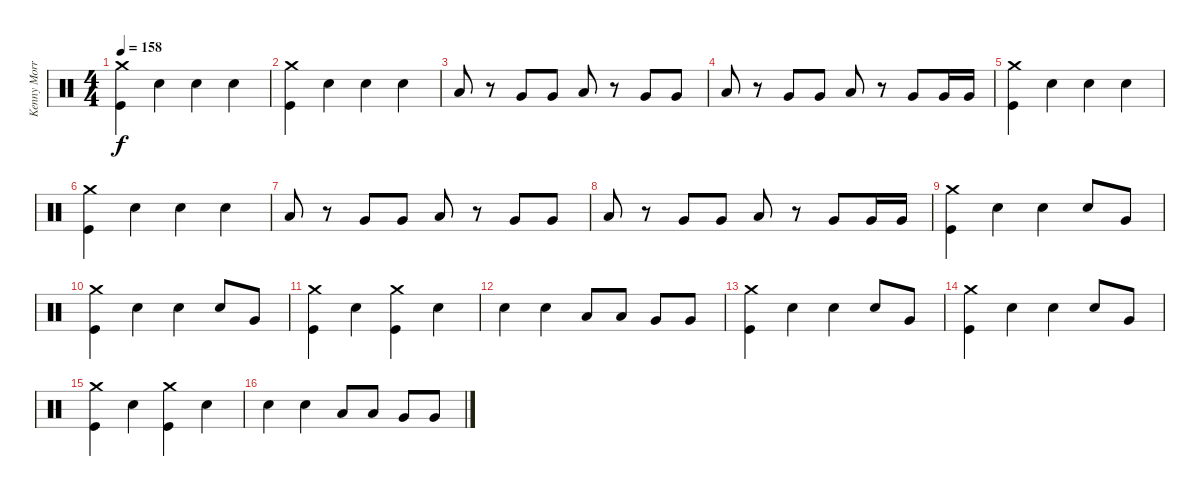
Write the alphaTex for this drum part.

\track ("Kenny Morris" "Kenny Morr") {instrument percussion}
\staff {score}
\articulation defaults
\ts (4 4)
\tempo 158
\clef neutral
\ks c
("Crash medium (hit)" "Kick (hit)").4{dy f} "Snare (hit) 2".4 "Snare (hit) 2".4 "Snare (hit) 2".4 |
("Crash medium (hit)" "Kick (hit)").4 "Snare (hit) 2".4 "Snare (hit) 2".4 "Snare (hit) 2".4 |
"Low Tom (hit)".8 r.8 "Very Low Tom (hit)".8 "Very Low Tom (hit)".8 "Low Tom (hit)".8 r.8 "Very Low Tom (hit)".8 "Very Low Tom (hit)".8 |
"Low Tom (hit)".8 r.8 "Very Low Tom (hit)".8 "Very Low Tom (hit)".8 "Low Tom (hit)".8 r.8 "Very Low Tom (hit)".8 "Very Low Tom (hit)".16 "Very Low Tom (hit)".16 |
("Crash medium (hit)" "Kick (hit)").4 "Snare (hit) 2".4 "Snare (hit) 2".4 "Snare (hit) 2".4 |
("Crash medium (hit)" "Kick (hit)").4 "Snare (hit) 2".4 "Snare (hit) 2".4 "Snare (hit) 2".4 |
"Low Tom (hit)".8 r.8 "Very Low Tom (hit)".8 "Very Low Tom (hit)".8 "Low Tom (hit)".8 r.8 "Very Low Tom (hit)".8 "Very Low Tom (hit)".8 |
"Low Tom (hit)".8 r.8 "Very Low Tom (hit)".8 "Very Low Tom (hit)".8 "Low Tom (hit)".8 r.8 "Very Low Tom (hit)".8 "Very Low Tom (hit)".16 "Very Low Tom (hit)".16 |
("Crash medium (hit)" "Kick (hit)").4 "Snare (hit) 2".4 "Snare (hit) 2".4 "Snare (hit) 2".8 "Very Low Tom (hit)".8 |
("Crash medium (hit)" "Kick (hit)").4 "Snare (hit) 2".4 "Snare (hit) 2".4 "Snare (hit) 2".8 "Very Low Tom (hit)".8 |
("Crash medium (hit)" "Kick (hit)").4 "Snare (hit) 2".4 ("Crash medium (hit)" "Kick (hit)").4 "Snare (hit) 2".4 |
"Snare (hit) 2".4 "Snare (hit) 2".4 "Low Tom (hit)".8 "Low Tom (hit)".8 "Very Low Tom (hit)".8 "Very Low Tom (hit)".8 |
("Crash medium (hit)" "Kick (hit)").4 "Snare (hit) 2".4 "Snare (hit) 2".4 "Snare (hit) 2".8 "Very Low Tom (hit)".8 |
("Crash medium (hit)" "Kick (hit)").4 "Snare (hit) 2".4 "Snare (hit) 2".4 "Snare (hit) 2".8 "Very Low Tom (hit)".8 |
("Crash medium (hit)" "Kick (hit)").4 "Snare (hit) 2".4 ("Crash medium (hit)" "Kick (hit)").4 "Snare (hit) 2".4 |
"Snare (hit) 2".4 "Snare (hit) 2".4 "Low Tom (hit)".8 "Low Tom (hit)".8 "Very Low Tom (hit)".8 "Very Low Tom (hit)".8
